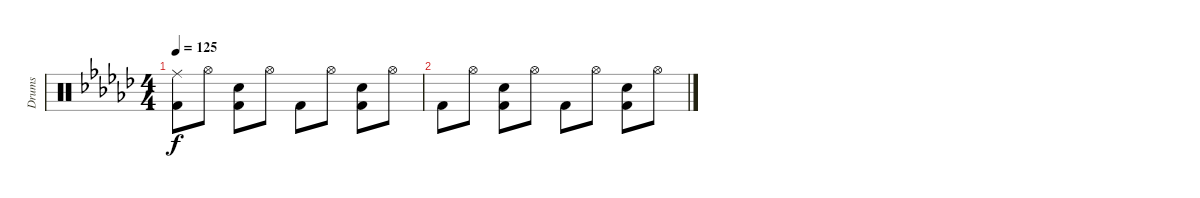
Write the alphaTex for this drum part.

\track ("Drums" "Drums") {instrument percussion}
\staff {score}
\articulation defaults
\ts (4 4)
\tempo 125
\clef neutral
\ks gb
("Ride (middle)" "Kick (hit) 2").8{dy f} "Hi-Hat (open)".8 ("Snare (hit) 2" "Kick (hit) 2").8 "Hi-Hat (open)".8 "Kick (hit) 2".8 "Hi-Hat (open)".8 ("Snare (hit) 2" "Kick (hit) 2").8 "Hi-Hat (open)".8 |
"Kick (hit) 2".8 "Hi-Hat (open)".8 ("Snare (hit) 2" "Kick (hit) 2").8 "Hi-Hat (open)".8 "Kick (hit) 2".8 "Hi-Hat (open)".8 ("Snare (hit) 2" "Kick (hit) 2").8 "Hi-Hat (open)".8
